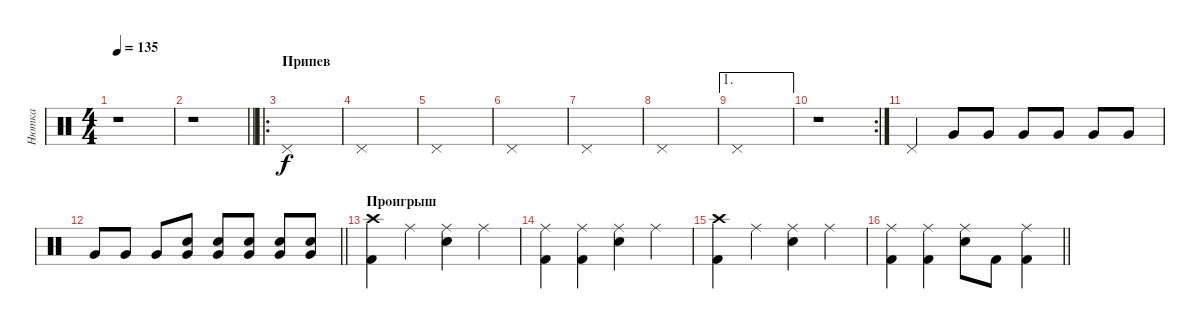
\track ("Нютка" "Нютка") {instrument percussion}
\staff {score}
\articulation defaults
\ts (4 4)
\tempo 135
\clef neutral
\ks c
r.1{dy f} |
\barLineRight lightlight
r.1 |
\ro
\section ("" "Припев")
"Pedal Hi-Hat (hit)".1 |
"Pedal Hi-Hat (hit)".1 |
"Pedal Hi-Hat (hit)".1 |
"Pedal Hi-Hat (hit)".1 |
"Pedal Hi-Hat (hit)".1 |
"Pedal Hi-Hat (hit)".1 |
\ae 1 "Pedal Hi-Hat (hit)".1
|
\rc 2
r.1 |
"Pedal Hi-Hat (hit)".4 "Very Low Tom (hit)".8{volume 4} "Very Low Tom (hit)".8 "Very Low Tom (hit)".8{volume 5} "Very Low Tom (hit)".8 "Very Low Tom (hit)".8{volume 6} "Very Low Tom (hit)".8 |
\barLineRight lightlight "Very Low Tom (hit)".8{volume 7} "Very Low Tom (hit)".8 "Very Low Tom (hit)".8{volume 8}
("Snare (hit) 2" "Very Low Tom (hit)").8 ("Snare (hit) 2" "Very Low Tom (hit)").8{volume 9} ("Snare (hit) 2" "Very Low Tom (hit)").8 ("Snare (hit) 2" "Very Low Tom (hit)").8{volume 10} ("Snare (hit) 2" "Very Low Tom (hit)").8 |
\section ("" "Проигрыш")
("Crash high (hit)" "Kick (hit) 2").4 "Ride (middle)".4 ("Ride (middle)" "Snare (hit) 2").4 "Ride (middle)".4 |
("Ride (middle)" "Kick (hit) 2").4 ("Ride (middle)" "Kick (hit) 2").4 ("Ride (middle)" "Snare (hit) 2").4 "Ride (middle)".4 |
("Crash high (hit)" "Kick (hit) 2").4 "Ride (middle)".4 ("Ride (middle)" "Snare (hit) 2").4 "Ride (middle)".4 |
\barLineRight lightlight
("Ride (middle)" "Kick (hit) 2").4 ("Ride (middle)" "Kick (hit) 2").4 ("Ride (middle)" "Snare (hit) 2").8 "Kick (hit) 2".8 ("Ride (middle)" "Kick (hit) 2").4
